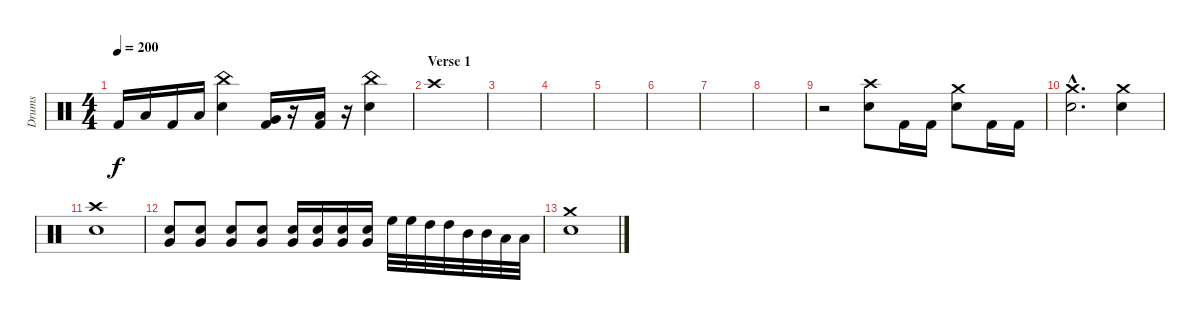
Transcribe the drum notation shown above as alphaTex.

\track ("Drums" "Drums") {instrument percussion}
\staff {score}
\articulation defaults
\ts (4 4)
\tempo 200
\clef neutral
\ks c "Kick (hit) 2".16{dy f} "Low Floor Tom (hit)".16 "Kick (hit) 2".16 "Low Floor Tom (hit)".16
("China (hit)" "Electric Snare (hit)").4 ("Very Low Tom (hit)" "Kick (hit) 2").16 r.16 ("Low Floor Tom (hit)" "Kick (hit) 2").16 r.16 ("China (hit)" "Electric Snare (hit)").4 |
\section ("" "Verse 1")
"Crash high (hit)".1 |
|
|
|
|
|
|
r.2 ("Electric Snare (hit)" "Crash high (hit)").8 "Kick (hit) 2".16 "Kick (hit) 2".16 ("Electric Snare (hit)" "Crash medium (hit)").8 "Kick (hit) 2".16 "Kick (hit) 2".16 |
("Crash medium (hit)"{hac} "Electric Snare (hit)"{hac}).2{d} ("Crash medium (hit)" "Electric Snare (hit)").4 |
("Crash high (hit)" "Electric Snare (hit)").1 |
("Very Low Tom (hit)" "Electric Snare (hit)").8 ("Very Low Tom (hit)" "Electric Snare (hit)").8 ("Very Low Tom (hit)" "Electric Snare (hit)").8 ("Very Low Tom (hit)" "Electric Snare (hit)").8 ("Very Low Tom (hit)" "Electric Snare (hit)").16 ("Very Low Tom (hit)" "Electric Snare (hit)").16 ("Very Low Tom (hit)" "Electric Snare (hit)").16 ("Very Low Tom (hit)" "Electric Snare (hit)").16 "High Floor Tom (hit)".32 "High Floor Tom (hit)".32 "High Tom (hit)".32 "High Tom (hit)".32 "Mid Tom (hit)".32 "Mid Tom (hit)".32 "Low Tom (hit)".32 "Low Tom (hit)".32 |
("Crash medium (hit)" "Electric Snare (hit)").1
